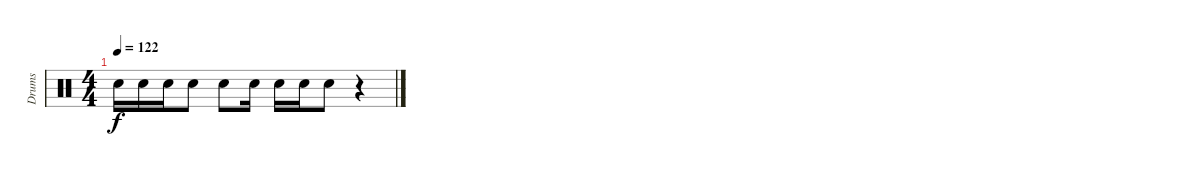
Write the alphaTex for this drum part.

\track ("Drums" "Drums") {instrument percussion}
\staff {score}
\articulation defaults
\ts (4 4)
\tempo 122
\clef neutral
\ks c "Snare (hit) 2".16{dy f} "Snare (hit) 2".16 "Snare (hit) 2".16 "Snare (hit) 2".8 "Snare (hit) 2".8 "Snare (hit) 2".16 "Snare (hit) 2".16 "Snare (hit) 2".16 "Snare (hit) 2".8
r.4
